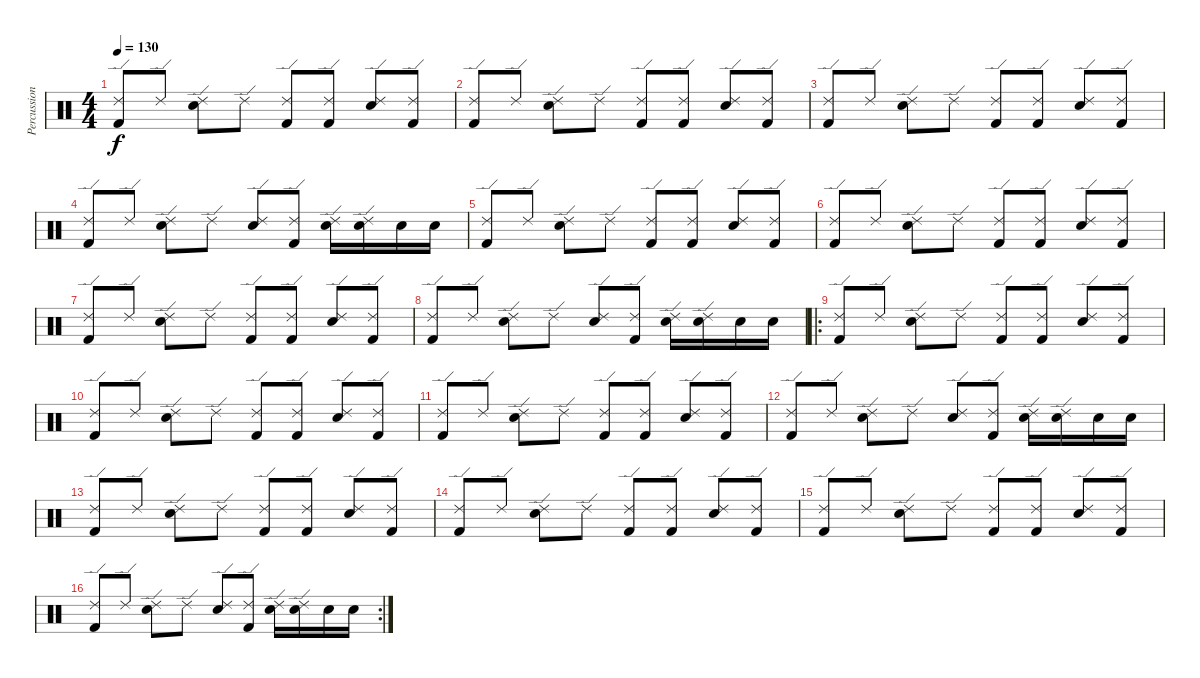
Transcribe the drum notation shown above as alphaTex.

\track ("Percussion" "Percussion") {instrument percussion}
\staff {score}
\articulation defaults
\ts (4 4)
\tempo 130
\clef neutral
\ks c
("Kick (hit) 2" "Ride (edge) 2").8{dy f} "Ride (edge) 2".8 ("Electric Snare (hit)" "Ride (edge) 2").8 "Ride (edge) 2".8 ("Kick (hit) 2" "Ride (edge) 2").8 ("Kick (hit) 2" "Ride (edge) 2").8 ("Electric Snare (hit)" "Ride (edge) 2").8 ("Kick (hit) 2" "Ride (edge) 2").8 |
("Kick (hit) 2" "Ride (edge) 2").8 "Ride (edge) 2".8 ("Electric Snare (hit)" "Ride (edge) 2").8 "Ride (edge) 2".8 ("Kick (hit) 2" "Ride (edge) 2").8 ("Kick (hit) 2" "Ride (edge) 2").8 ("Electric Snare (hit)" "Ride (edge) 2").8 ("Kick (hit) 2" "Ride (edge) 2").8 |
("Kick (hit) 2" "Ride (edge) 2").8 "Ride (edge) 2".8 ("Electric Snare (hit)" "Ride (edge) 2").8 "Ride (edge) 2".8 ("Kick (hit) 2" "Ride (edge) 2").8 ("Kick (hit) 2" "Ride (edge) 2").8 ("Electric Snare (hit)" "Ride (edge) 2").8 ("Kick (hit) 2" "Ride (edge) 2").8 |
("Kick (hit) 2" "Ride (edge) 2").8 "Ride (edge) 2".8 ("Electric Snare (hit)" "Ride (edge) 2").8 "Ride (edge) 2".8 ("Electric Snare (hit)" "Ride (edge) 2").8 ("Kick (hit) 2" "Ride (edge) 2").8 ("Electric Snare (hit)" "Ride (edge) 2").16 ("Electric Snare (hit)" "Ride (edge) 2").16 "Electric Snare (hit)".16 "Electric Snare (hit)".16 |
("Kick (hit) 2" "Ride (edge) 2").8 "Ride (edge) 2".8 ("Electric Snare (hit)" "Ride (edge) 2").8 "Ride (edge) 2".8 ("Kick (hit) 2" "Ride (edge) 2").8 ("Kick (hit) 2" "Ride (edge) 2").8 ("Electric Snare (hit)" "Ride (edge) 2").8 ("Kick (hit) 2" "Ride (edge) 2").8 |
("Kick (hit) 2" "Ride (edge) 2").8 "Ride (edge) 2".8 ("Electric Snare (hit)" "Ride (edge) 2").8 "Ride (edge) 2".8 ("Kick (hit) 2" "Ride (edge) 2").8 ("Kick (hit) 2" "Ride (edge) 2").8 ("Electric Snare (hit)" "Ride (edge) 2").8 ("Kick (hit) 2" "Ride (edge) 2").8 |
("Kick (hit) 2" "Ride (edge) 2").8 "Ride (edge) 2".8 ("Electric Snare (hit)" "Ride (edge) 2").8 "Ride (edge) 2".8 ("Kick (hit) 2" "Ride (edge) 2").8 ("Kick (hit) 2" "Ride (edge) 2").8 ("Electric Snare (hit)" "Ride (edge) 2").8 ("Kick (hit) 2" "Ride (edge) 2").8 |
("Kick (hit) 2" "Ride (edge) 2").8 "Ride (edge) 2".8 ("Electric Snare (hit)" "Ride (edge) 2").8 "Ride (edge) 2".8 ("Electric Snare (hit)" "Ride (edge) 2").8 ("Kick (hit) 2" "Ride (edge) 2").8 ("Electric Snare (hit)" "Ride (edge) 2").16 ("Electric Snare (hit)" "Ride (edge) 2").16 "Electric Snare (hit)".16 "Electric Snare (hit)".16 |
\ro
("Kick (hit) 2" "Ride (edge) 2").8 "Ride (edge) 2".8 ("Electric Snare (hit)" "Ride (edge) 2").8 "Ride (edge) 2".8 ("Kick (hit) 2" "Ride (edge) 2").8 ("Kick (hit) 2" "Ride (edge) 2").8 ("Electric Snare (hit)" "Ride (edge) 2").8 ("Kick (hit) 2" "Ride (edge) 2").8 |
("Kick (hit) 2" "Ride (edge) 2").8 "Ride (edge) 2".8 ("Electric Snare (hit)" "Ride (edge) 2").8 "Ride (edge) 2".8 ("Kick (hit) 2" "Ride (edge) 2").8 ("Kick (hit) 2" "Ride (edge) 2").8 ("Electric Snare (hit)" "Ride (edge) 2").8 ("Kick (hit) 2" "Ride (edge) 2").8 |
("Kick (hit) 2" "Ride (edge) 2").8 "Ride (edge) 2".8 ("Electric Snare (hit)" "Ride (edge) 2").8 "Ride (edge) 2".8 ("Kick (hit) 2" "Ride (edge) 2").8 ("Kick (hit) 2" "Ride (edge) 2").8 ("Electric Snare (hit)" "Ride (edge) 2").8 ("Kick (hit) 2" "Ride (edge) 2").8 |
("Kick (hit) 2" "Ride (edge) 2").8 "Ride (edge) 2".8 ("Electric Snare (hit)" "Ride (edge) 2").8 "Ride (edge) 2".8 ("Electric Snare (hit)" "Ride (edge) 2").8 ("Kick (hit) 2" "Ride (edge) 2").8 ("Electric Snare (hit)" "Ride (edge) 2").16 ("Electric Snare (hit)" "Ride (edge) 2").16 "Electric Snare (hit)".16 "Electric Snare (hit)".16 |
("Kick (hit) 2" "Ride (edge) 2").8 "Ride (edge) 2".8 ("Electric Snare (hit)" "Ride (edge) 2").8 "Ride (edge) 2".8 ("Kick (hit) 2" "Ride (edge) 2").8 ("Kick (hit) 2" "Ride (edge) 2").8 ("Electric Snare (hit)" "Ride (edge) 2").8 ("Kick (hit) 2" "Ride (edge) 2").8 |
("Kick (hit) 2" "Ride (edge) 2").8 "Ride (edge) 2".8 ("Electric Snare (hit)" "Ride (edge) 2").8 "Ride (edge) 2".8 ("Kick (hit) 2" "Ride (edge) 2").8 ("Kick (hit) 2" "Ride (edge) 2").8 ("Electric Snare (hit)" "Ride (edge) 2").8 ("Kick (hit) 2" "Ride (edge) 2").8 |
("Kick (hit) 2" "Ride (edge) 2").8 "Ride (edge) 2".8 ("Electric Snare (hit)" "Ride (edge) 2").8 "Ride (edge) 2".8 ("Kick (hit) 2" "Ride (edge) 2").8 ("Kick (hit) 2" "Ride (edge) 2").8 ("Electric Snare (hit)" "Ride (edge) 2").8 ("Kick (hit) 2" "Ride (edge) 2").8 |
\rc 2
("Kick (hit) 2" "Ride (edge) 2").8 "Ride (edge) 2".8 ("Electric Snare (hit)" "Ride (edge) 2").8 "Ride (edge) 2".8 ("Electric Snare (hit)" "Ride (edge) 2").8 ("Kick (hit) 2" "Ride (edge) 2").8 ("Electric Snare (hit)" "Ride (edge) 2").16 ("Electric Snare (hit)" "Ride (edge) 2").16 "Electric Snare (hit)".16 "Electric Snare (hit)".16
